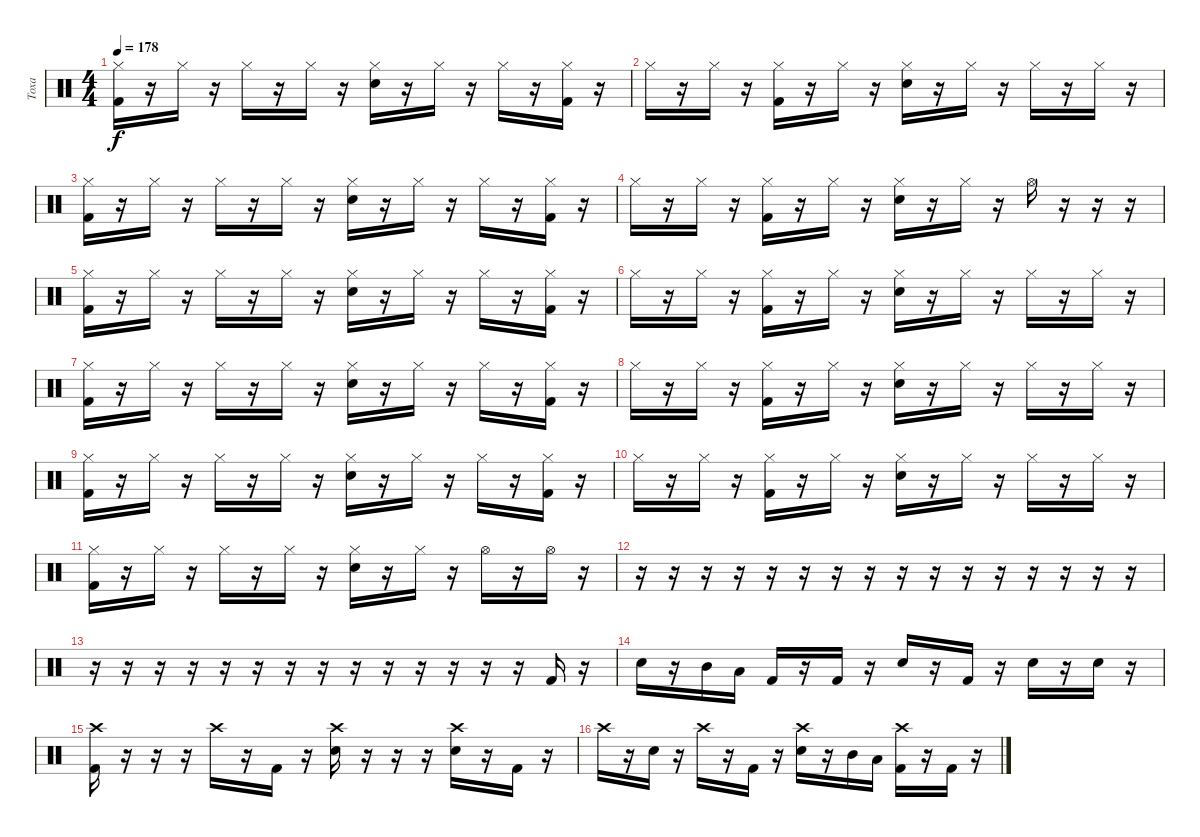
\track ("Тоха" "Тоха") {instrument percussion}
\staff {score}
\articulation defaults
\ts (4 4)
\tempo 178
\clef neutral
\ks c
("Hi-Hat (closed)" "Kick (hit) 2").16{dy f} r.16 "Hi-Hat (closed)".16 r.16 "Hi-Hat (closed)".16 r.16 "Hi-Hat (closed)".16 r.16 ("Hi-Hat (closed)" "Electric Snare (hit)").16 r.16 "Hi-Hat (closed)".16 r.16 "Hi-Hat (closed)".16 r.16 ("Hi-Hat (closed)" "Kick (hit) 2").16 r.16 |
"Hi-Hat (closed)".16 r.16 "Hi-Hat (closed)".16 r.16 ("Hi-Hat (closed)" "Kick (hit) 2").16 r.16 "Hi-Hat (closed)".16 r.16 ("Hi-Hat (closed)" "Electric Snare (hit)").16 r.16 "Hi-Hat (closed)".16 r.16 "Hi-Hat (closed)".16 r.16 "Hi-Hat (closed)".16 r.16 |
("Hi-Hat (closed)" "Kick (hit) 2").16 r.16 "Hi-Hat (closed)".16 r.16 "Hi-Hat (closed)".16 r.16 "Hi-Hat (closed)".16 r.16 ("Hi-Hat (closed)" "Electric Snare (hit)").16 r.16 "Hi-Hat (closed)".16 r.16 "Hi-Hat (closed)".16 r.16 ("Hi-Hat (closed)" "Kick (hit) 2").16 r.16 |
"Hi-Hat (closed)".16 r.16 "Hi-Hat (closed)".16 r.16 ("Hi-Hat (closed)" "Kick (hit) 2").16 r.16 "Hi-Hat (closed)".16 r.16 ("Hi-Hat (closed)" "Electric Snare (hit)").16 r.16 "Hi-Hat (closed)".16 r.16 "Hi-Hat (open)".16 r.16 r.16 r.16 |
("Hi-Hat (closed)" "Kick (hit) 2").16 r.16 "Hi-Hat (closed)".16 r.16 "Hi-Hat (closed)".16 r.16 "Hi-Hat (closed)".16 r.16 ("Hi-Hat (closed)" "Electric Snare (hit)").16 r.16 "Hi-Hat (closed)".16 r.16 "Hi-Hat (closed)".16 r.16 ("Hi-Hat (closed)" "Kick (hit) 2").16 r.16 |
"Hi-Hat (closed)".16 r.16 "Hi-Hat (closed)".16 r.16 ("Hi-Hat (closed)" "Kick (hit) 2").16 r.16 "Hi-Hat (closed)".16 r.16 ("Hi-Hat (closed)" "Electric Snare (hit)").16 r.16 "Hi-Hat (closed)".16 r.16 "Hi-Hat (closed)".16 r.16 "Hi-Hat (closed)".16 r.16 |
("Hi-Hat (closed)" "Kick (hit) 2").16 r.16 "Hi-Hat (closed)".16 r.16 "Hi-Hat (closed)".16 r.16 "Hi-Hat (closed)".16 r.16 ("Hi-Hat (closed)" "Electric Snare (hit)").16 r.16 "Hi-Hat (closed)".16 r.16 "Hi-Hat (closed)".16 r.16 ("Hi-Hat (closed)" "Kick (hit) 2").16 r.16 |
"Hi-Hat (closed)".16 r.16 "Hi-Hat (closed)".16 r.16 ("Hi-Hat (closed)" "Kick (hit) 2").16 r.16 "Hi-Hat (closed)".16 r.16 ("Hi-Hat (closed)" "Electric Snare (hit)").16 r.16 "Hi-Hat (closed)".16 r.16 "Hi-Hat (closed)".16 r.16 "Hi-Hat (closed)".16 r.16 |
("Hi-Hat (closed)" "Kick (hit) 2").16 r.16 "Hi-Hat (closed)".16 r.16 "Hi-Hat (closed)".16 r.16 "Hi-Hat (closed)".16 r.16 ("Hi-Hat (closed)" "Electric Snare (hit)").16 r.16 "Hi-Hat (closed)".16 r.16 "Hi-Hat (closed)".16 r.16 ("Hi-Hat (closed)" "Kick (hit) 2").16 r.16 |
"Hi-Hat (closed)".16 r.16 "Hi-Hat (closed)".16 r.16 ("Hi-Hat (closed)" "Kick (hit) 2").16 r.16 "Hi-Hat (closed)".16 r.16 ("Hi-Hat (closed)" "Electric Snare (hit)").16 r.16 "Hi-Hat (closed)".16 r.16 "Hi-Hat (closed)".16 r.16 "Hi-Hat (closed)".16 r.16 |
("Hi-Hat (closed)" "Kick (hit) 2").16 r.16 "Hi-Hat (closed)".16 r.16 "Hi-Hat (closed)".16 r.16 "Hi-Hat (closed)".16 r.16 ("Hi-Hat (closed)" "Electric Snare (hit)").16 r.16 "Hi-Hat (closed)".16 r.16 "Hi-Hat (open)".16 r.16 "Hi-Hat (open)".16 r.16 |
r.16 r.16 r.16 r.16 r.16 r.16 r.16 r.16 r.16 r.16 r.16 r.16 r.16 r.16 r.16 r.16 |
r.16 r.16 r.16 r.16 r.16 r.16 r.16 r.16 r.16 r.16 r.16 r.16 r.16 r.16 "Kick (hit) 2".16 r.16 |
"Electric Snare (hit)".16 r.16 "Mid Tom (hit)".16 "Low Tom (hit)".16 "Kick (hit) 2".16 r.16 "Kick (hit) 2".16 r.16 "Electric Snare (hit)".16 r.16 "Kick (hit) 2".16 r.16 "Electric Snare (hit)".16 r.16 "Electric Snare (hit)".16 r.16 |
("Crash high (hit)" "Kick (hit) 2").16 r.16 r.16 r.16 "Crash high (hit)".16 r.16 "Kick (hit) 2".16 r.16 ("Crash high (hit)" "Electric Snare (hit)").16 r.16 r.16 r.16 ("Crash high (hit)" "Electric Snare (hit)").16 r.16 "Kick (hit) 2".16 r.16 |
"Crash high (hit)".16 r.16 "Electric Snare (hit)".16 r.16 "Crash high (hit)".16 r.16 "Kick (hit) 2".16 r.16 ("Crash high (hit)" "Electric Snare (hit)").16 r.16 "Mid Tom (hit)".16 "Low Tom (hit)".16 ("Crash high (hit)" "Kick (hit) 2").16 r.16 "Kick (hit) 2".16 r.16
